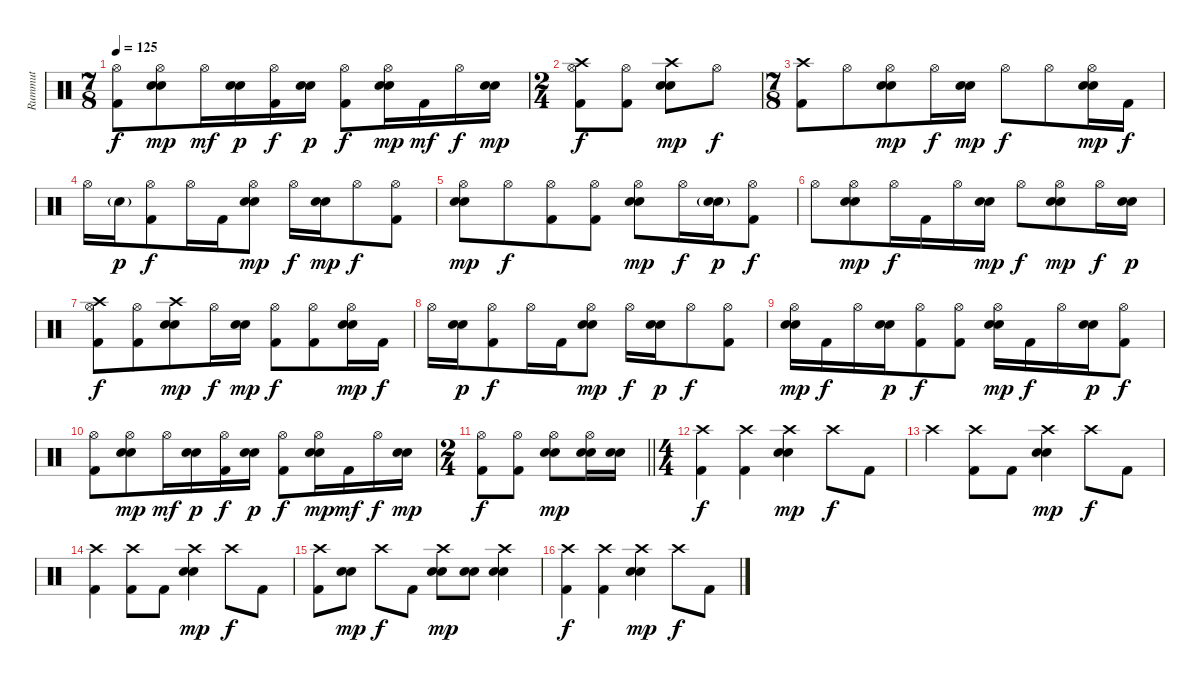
\track ("Rummut" "Rummut") {instrument percussion}
\staff {score}
\articulation defaults
\ts (7 8)
\tempo 125
\clef neutral
\ks c
("Hi-Hat (open)" "Kick (hit) 2").8{dy f} ("Hi-Hat (open)" "Electric Snare (hit)" "Snare (hit) 2").8{dy mp} "Hi-Hat (open)".16{dy mf} ("Electric Snare (hit)" "Snare (hit) 2").16{dy p} ("Hi-Hat (open)" "Kick (hit) 2").16{dy f} ("Electric Snare (hit)" "Snare (hit) 2").16{dy p} ("Hi-Hat (open)" "Kick (hit) 2").8{dy f} ("Hi-Hat (open)" "Electric Snare (hit)" "Snare (hit) 2").16{dy mp} "Kick (hit) 2".16{dy mf} "Hi-Hat (open)".16{dy f} ("Electric Snare (hit)" "Snare (hit) 2").16{dy mp} |
\ts (2 4)
("Crash high (hit)" "Hi-Hat (open)" "Kick (hit) 2").8{dy f} ("Hi-Hat (open)" "Kick (hit) 2").8 ("Crash high (hit)" "Electric Snare (hit)" "Snare (hit) 2").8{dy mp} "Hi-Hat (open)".8{dy f} |
\ts (7 8)
("Crash high (hit)" "Kick (hit) 2").8 "Hi-Hat (open)".8 ("Hi-Hat (open)" "Electric Snare (hit)" "Snare (hit) 2").8{dy mp} "Hi-Hat (open)".16{dy f} ("Electric Snare (hit)" "Snare (hit) 2").16{dy mp} "Hi-Hat (open)".8{dy f} "Hi-Hat (open)".8 ("Hi-Hat (open)" "Electric Snare (hit)" "Snare (hit) 2").16{dy mp} "Kick (hit) 2".16{dy f} |
"Hi-Hat (open)".16 "Snare (hit) 2"{g}.16{dy p} ("Hi-Hat (open)" "Kick (hit) 2").8{dy f} "Hi-Hat (open)".16 "Kick (hit) 2".16 ("Hi-Hat (open)" "Electric Snare (hit)" "Snare (hit) 2").8{dy mp} "Hi-Hat (open)".16{dy f} ("Electric Snare (hit)" "Snare (hit) 2").16{dy mp} "Hi-Hat (open)".8{dy f} ("Hi-Hat (open)" "Kick (hit) 2").8 |
("Hi-Hat (open)" "Electric Snare (hit)" "Snare (hit) 2").8{dy mp} "Hi-Hat (open)".8{dy f} ("Hi-Hat (open)" "Kick (hit) 2").8 ("Hi-Hat (open)" "Kick (hit) 2").8 ("Hi-Hat (open)" "Electric Snare (hit)" "Snare (hit) 2").8{dy mp} "Hi-Hat (open)".16{dy f} ("Electric Snare (hit)"{g} "Snare (hit) 2"{g}).16{dy p} ("Hi-Hat (open)" "Kick (hit) 2").8{dy f} |
"Hi-Hat (open)".8 ("Hi-Hat (open)" "Electric Snare (hit)" "Snare (hit) 2").8{dy mp} "Hi-Hat (open)".16{dy f} "Kick (hit) 2".16 "Hi-Hat (open)".16 ("Electric Snare (hit)" "Snare (hit) 2").16{dy mp} "Hi-Hat (open)".8{dy f} ("Hi-Hat (open)" "Electric Snare (hit)" "Snare (hit) 2").8{dy mp} "Hi-Hat (open)".16{dy f} ("Electric Snare (hit)" "Snare (hit) 2").16{dy p} |
("Crash high (hit)" "Hi-Hat (open)" "Kick (hit) 2").8{dy f} ("Hi-Hat (open)" "Kick (hit) 2").8 ("Crash high (hit)" "Electric Snare (hit)" "Snare (hit) 2").8{dy mp} "Hi-Hat (open)".16{dy f} ("Electric Snare (hit)" "Snare (hit) 2").16{dy mp} ("Hi-Hat (open)" "Kick (hit) 2").8{dy f} ("Hi-Hat (open)" "Kick (hit) 2").8 ("Hi-Hat (open)" "Electric Snare (hit)" "Snare (hit) 2").16{dy mp} "Kick (hit) 2".16{dy f} |
"Hi-Hat (open)".16 ("Electric Snare (hit)" "Snare (hit) 2").16{dy p} ("Hi-Hat (open)" "Kick (hit) 2").8{dy f} "Hi-Hat (open)".16 "Kick (hit) 2".16 ("Hi-Hat (open)" "Electric Snare (hit)" "Snare (hit) 2").8{dy mp} "Hi-Hat (open)".16{dy f} ("Electric Snare (hit)" "Snare (hit) 2").16{dy p} "Hi-Hat (open)".8{dy f} ("Hi-Hat (open)" "Kick (hit) 2").8 |
("Hi-Hat (open)" "Electric Snare (hit)" "Snare (hit) 2").16{dy mp} "Kick (hit) 2".16{dy f} "Hi-Hat (open)".16 ("Electric Snare (hit)" "Snare (hit) 2").16{dy p} ("Hi-Hat (open)" "Kick (hit) 2").8{dy f} ("Hi-Hat (open)" "Kick (hit) 2").8 ("Hi-Hat (open)" "Electric Snare (hit)" "Snare (hit) 2").16{dy mp} "Kick (hit) 2".16{dy f} "Hi-Hat (open)".16 ("Electric Snare (hit)" "Snare (hit) 2").16{dy p} ("Hi-Hat (open)" "Kick (hit) 2").8{dy f} |
("Hi-Hat (open)" "Kick (hit) 2").8 ("Hi-Hat (open)" "Electric Snare (hit)" "Snare (hit) 2").8{dy mp} "Hi-Hat (open)".16{dy mf} ("Electric Snare (hit)" "Snare (hit) 2").16{dy p} ("Hi-Hat (open)" "Kick (hit) 2").16{dy f} ("Electric Snare (hit)" "Snare (hit) 2").16{dy p} ("Hi-Hat (open)" "Kick (hit) 2").8{dy f} ("Hi-Hat (open)" "Electric Snare (hit)" "Snare (hit) 2").16{dy mp} "Kick (hit) 2".16{dy mf} "Hi-Hat (open)".16{dy f} ("Electric Snare (hit)" "Snare (hit) 2").16{dy mp} |
\ts (2 4)
\barLineRight lightlight
("Hi-Hat (open)" "Kick (hit) 2").8{dy f} ("Hi-Hat (open)" "Kick (hit) 2").8 ("Hi-Hat (open)" "Electric Snare (hit)" "Snare (hit) 2").8{dy mp} ("Hi-Hat (open)" "Electric Snare (hit)" "Snare (hit) 2").16 ("Electric Snare (hit)" "Snare (hit) 2").16 |
\ts (4 4)
\section ("" "")
("Crash high (hit)" "Kick (hit) 2").4{dy f} ("Crash high (hit)" "Kick (hit) 2").4 ("Crash high (hit)" "Electric Snare (hit)" "Snare (hit) 2").4{dy mp} "Crash high (hit)".8{dy f} "Kick (hit) 2".8 |
"Crash high (hit)".4 ("Crash high (hit)" "Kick (hit) 2").8 "Kick (hit) 2".8 ("Crash high (hit)" "Electric Snare (hit)" "Snare (hit) 2").4{dy mp} "Crash high (hit)".8{dy f} "Kick (hit) 2".8 |
("Crash high (hit)" "Kick (hit) 2").4 ("Crash high (hit)" "Kick (hit) 2").8 "Kick (hit) 2".8 ("Crash high (hit)" "Electric Snare (hit)" "Snare (hit) 2").4{dy mp} "Crash high (hit)".8{dy f} "Kick (hit) 2".8 |
("Crash high (hit)" "Kick (hit) 2").8 ("Electric Snare (hit)" "Snare (hit) 2").8{dy mp} "Crash high (hit)".8{dy f} "Kick (hit) 2".8 ("Crash high (hit)" "Electric Snare (hit)" "Snare (hit) 2").8{dy mp} ("Electric Snare (hit)" "Snare (hit) 2").8 ("Crash high (hit)" "Electric Snare (hit)" "Snare (hit) 2").4 |
("Crash high (hit)" "Kick (hit) 2").4{dy f} ("Crash high (hit)" "Kick (hit) 2").4 ("Crash high (hit)" "Electric Snare (hit)" "Snare (hit) 2").4{dy mp} "Crash high (hit)".8{dy f} "Kick (hit) 2".8
